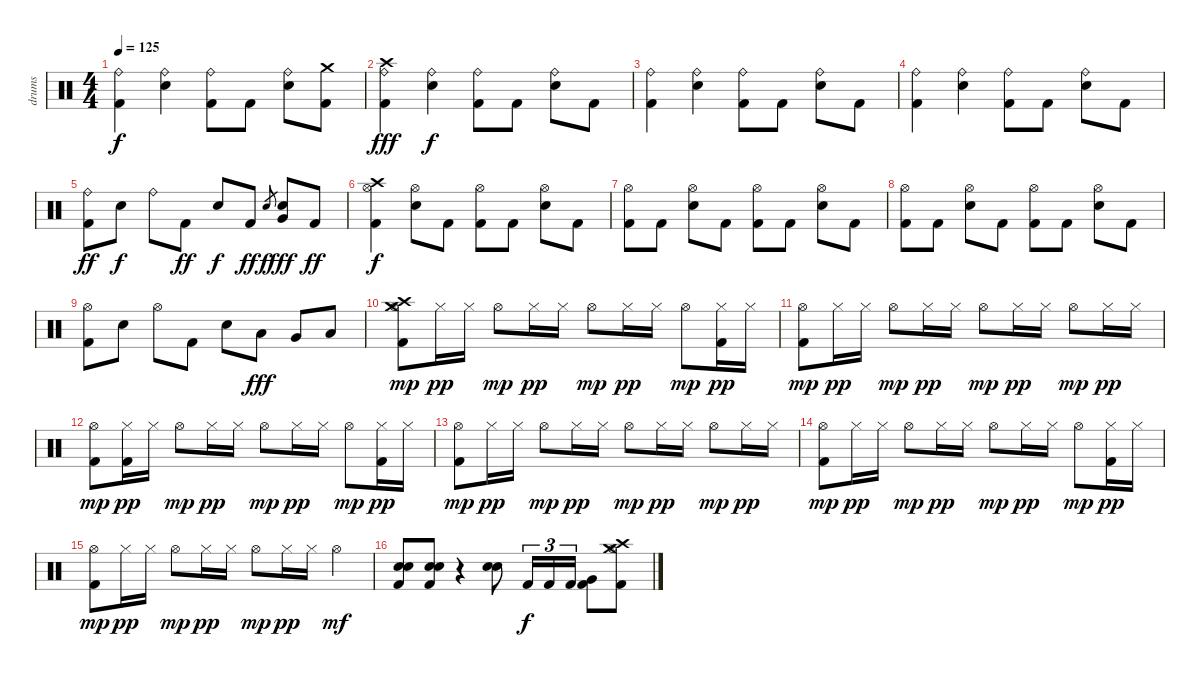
\track ("drums" "drums") {instrument percussion}
\staff {score}
\articulation defaults
\ts (4 4)
\tempo 125
\clef neutral
\ks c
("Kick (hit) 2" "Ride (bell)").4{dy f} ("Ride (bell)" "Snare (hit) 2").4 ("Kick (hit) 2" "Ride (bell)").8 "Kick (hit) 2".8 ("Ride (bell)" "Snare (hit) 2").8 ("Kick (hit) 2" "Crash medium (hit)").8 |
("Kick (hit) 2" "Crash high (hit)" "Ride (bell)").4{dy fff} ("Ride (bell)" "Snare (hit) 2").4{dy f} ("Kick (hit) 2" "Ride (bell)").8 "Kick (hit) 2".8 ("Ride (bell)" "Snare (hit) 2").8 "Kick (hit) 2".8 |
("Kick (hit) 2" "Ride (bell)").4 ("Ride (bell)" "Snare (hit) 2").4 ("Kick (hit) 2" "Ride (bell)").8 "Kick (hit) 2".8 ("Ride (bell)" "Snare (hit) 2").8 "Kick (hit) 2".8 |
("Kick (hit) 2" "Ride (bell)").4 ("Ride (bell)" "Snare (hit) 2").4 ("Kick (hit) 2" "Ride (bell)").8 "Kick (hit) 2".8 ("Ride (bell)" "Snare (hit) 2").8 "Kick (hit) 2".8 |
("Kick (hit) 2" "Ride (bell)").8{dy ff} "Snare (hit) 2".8{dy f} "Ride (bell)".8 "Kick (hit) 2".8{dy ff} "Snare (hit) 2".8{dy f} "Kick (hit) 2".8{dy ff} "Snare (hit) 2".8{gr dy f} ("Very Low Tom (hit)" "Snare (hit) 2").8{dy fff} "Kick (hit) 2".8{dy ff} |
("Kick (hit) 2" "Crash high (hit)" "Hi-Hat (open)").4{dy f} ("Hi-Hat (open)" "Snare (hit) 2").8 "Kick (hit) 2".8 ("Kick (hit) 2" "Hi-Hat (open)").8 "Kick (hit) 2".8 ("Hi-Hat (open)" "Snare (hit) 2").8 "Kick (hit) 2".8 |
("Kick (hit) 2" "Hi-Hat (open)").8 "Kick (hit) 2".8 ("Hi-Hat (open)" "Snare (hit) 2").8 "Kick (hit) 2".8 ("Kick (hit) 2" "Hi-Hat (open)").8 "Kick (hit) 2".8 ("Hi-Hat (open)" "Snare (hit) 2").8 "Kick (hit) 2".8 |
("Kick (hit) 2" "Hi-Hat (open)").8 "Kick (hit) 2".8 ("Hi-Hat (open)" "Snare (hit) 2").8 "Kick (hit) 2".8 ("Kick (hit) 2" "Hi-Hat (open)").8 "Kick (hit) 2".8 ("Hi-Hat (open)" "Snare (hit) 2").8 "Kick (hit) 2".8 |
("Kick (hit) 2" "Hi-Hat (open)").8 "Snare (hit) 2".8 "Hi-Hat (open)".8 "Kick (hit) 2".8 "Snare (hit) 2".8 "Low Tom (hit)".8{dy fff} "Very Low Tom (hit)".8 "Low Floor Tom (hit)".8 |
("Kick (hit) 2" "Crash high (hit)" "Crash medium (hit)" "Hi-Hat (open)").8{dy mp} "Hi-Hat (closed)".16{dy pp} "Hi-Hat (closed)".16 "Hi-Hat (open)".8{dy mp} "Hi-Hat (closed)".16{dy pp} "Hi-Hat (closed)".16 "Hi-Hat (open)".8{dy mp} "Hi-Hat (closed)".16{dy pp} "Hi-Hat (closed)".16 "Hi-Hat (open)".8{dy mp} ("Kick (hit) 2" "Hi-Hat (closed)").16{dy pp} "Hi-Hat (closed)".16 |
("Kick (hit) 2" "Hi-Hat (open)").8{dy mp} "Hi-Hat (closed)".16{dy pp} "Hi-Hat (closed)".16 "Hi-Hat (open)".8{dy mp} "Hi-Hat (closed)".16{dy pp} "Hi-Hat (closed)".16 "Hi-Hat (open)".8{dy mp} "Hi-Hat (closed)".16{dy pp} "Hi-Hat (closed)".16 "Hi-Hat (open)".8{dy mp} "Hi-Hat (closed)".16{dy pp} "Hi-Hat (closed)".16 |
("Kick (hit) 2" "Hi-Hat (open)").8{dy mp} ("Kick (hit) 2" "Hi-Hat (closed)").16{dy pp} "Hi-Hat (closed)".16 "Hi-Hat (open)".8{dy mp} "Hi-Hat (closed)".16{dy pp} "Hi-Hat (closed)".16 "Hi-Hat (open)".8{dy mp} "Hi-Hat (closed)".16{dy pp} "Hi-Hat (closed)".16 "Hi-Hat (open)".8{dy mp} ("Kick (hit) 2" "Hi-Hat (closed)").16{dy pp} "Hi-Hat (closed)".16 |
("Kick (hit) 2" "Hi-Hat (open)").8{dy mp} "Hi-Hat (closed)".16{dy pp} "Hi-Hat (closed)".16 "Hi-Hat (open)".8{dy mp} "Hi-Hat (closed)".16{dy pp} "Hi-Hat (closed)".16 "Hi-Hat (open)".8{dy mp} "Hi-Hat (closed)".16{dy pp} "Hi-Hat (closed)".16 "Hi-Hat (open)".8{dy mp} "Hi-Hat (closed)".16{dy pp} "Hi-Hat (closed)".16 |
("Kick (hit) 2" "Hi-Hat (open)").8{dy mp} "Hi-Hat (closed)".16{dy pp} "Hi-Hat (closed)".16 "Hi-Hat (open)".8{dy mp} "Hi-Hat (closed)".16{dy pp} "Hi-Hat (closed)".16 "Hi-Hat (open)".8{dy mp} "Hi-Hat (closed)".16{dy pp} "Hi-Hat (closed)".16 "Hi-Hat (open)".8{dy mp} ("Kick (hit) 2" "Hi-Hat (closed)").16{dy pp} "Hi-Hat (closed)".16 |
("Kick (hit) 2" "Hi-Hat (open)").8{dy mp} "Hi-Hat (closed)".16{dy pp} "Hi-Hat (closed)".16 "Hi-Hat (open)".8{dy mp} "Hi-Hat (closed)".16{dy pp} "Hi-Hat (closed)".16 "Hi-Hat (open)".8{dy mp} "Hi-Hat (closed)".16{dy pp} "Hi-Hat (closed)".16 "Hi-Hat (open)".4{dy mf} |
("Kick (hit) 2" "Electric Snare (hit)" "Snare (hit) 2").8 ("Kick (hit) 2" "Electric Snare (hit)" "Snare (hit) 2").8 r.4 ("Electric Snare (hit)" "Snare (hit) 2").8 "Kick (hit) 2".16{tu (3 2) dy f} "Kick (hit) 2".16{tu (3 2)} "Kick (hit) 2".16{tu (3 2)} ("Kick (hit) 2" "Very Low Tom (hit)").8 ("Kick (hit) 2" "Crash high (hit)" "Crash medium (hit)" "Hi-Hat (open)").8
